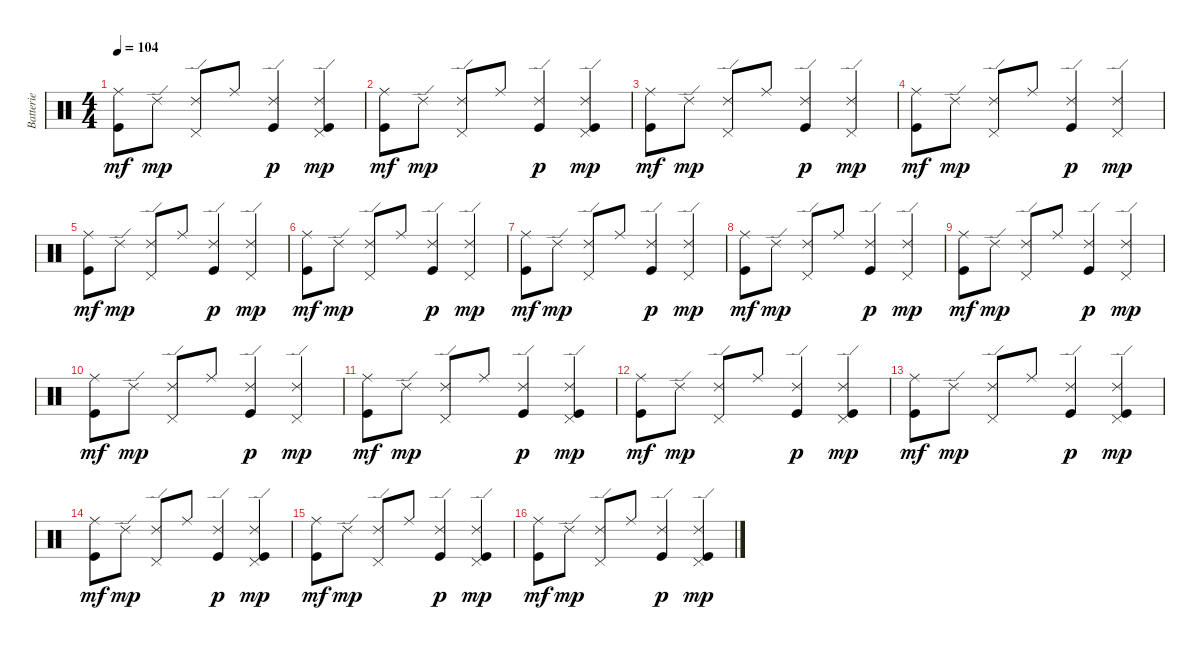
\track ("Batterie" "Batterie") {instrument percussion}
\staff {score}
\articulation defaults
\ts (4 4)
\tempo 104
\clef neutral
\ks c
("Ride (middle)" "Kick (hit)").8{dy mf} "Ride (edge) 2".8{dy mp} ("Pedal Hi-Hat (hit)" "Ride (edge) 2").8 "Ride (middle)".8 ("Kick (hit)" "Ride (edge) 2").4{dy p} ("Pedal Hi-Hat (hit)" "Kick (hit)" "Ride (edge) 2").4{dy mp} |
("Ride (middle)" "Kick (hit)").8{dy mf} "Ride (edge) 2".8{dy mp} ("Pedal Hi-Hat (hit)" "Ride (edge) 2").8 "Ride (middle)".8 ("Kick (hit)" "Ride (edge) 2").4{dy p} ("Pedal Hi-Hat (hit)" "Kick (hit)" "Ride (edge) 2").4{dy mp} |
("Ride (middle)" "Kick (hit)").8{dy mf} "Ride (edge) 2".8{dy mp} ("Pedal Hi-Hat (hit)" "Ride (edge) 2").8 "Ride (middle)".8 ("Kick (hit)" "Ride (edge) 2").4{dy p} ("Pedal Hi-Hat (hit)" "Ride (edge) 2").4{dy mp} |
("Ride (middle)" "Kick (hit)").8{dy mf} "Ride (edge) 2".8{dy mp} ("Pedal Hi-Hat (hit)" "Ride (edge) 2").8 "Ride (middle)".8 ("Kick (hit)" "Ride (edge) 2").4{dy p} ("Pedal Hi-Hat (hit)" "Ride (edge) 2").4{dy mp} |
("Ride (middle)" "Kick (hit)").8{dy mf} "Ride (edge) 2".8{dy mp} ("Pedal Hi-Hat (hit)" "Ride (edge) 2").8 "Ride (middle)".8 ("Kick (hit)" "Ride (edge) 2").4{dy p} ("Pedal Hi-Hat (hit)" "Ride (edge) 2").4{dy mp} |
("Ride (middle)" "Kick (hit)").8{dy mf} "Ride (edge) 2".8{dy mp} ("Pedal Hi-Hat (hit)" "Ride (edge) 2").8 "Ride (middle)".8 ("Kick (hit)" "Ride (edge) 2").4{dy p} ("Pedal Hi-Hat (hit)" "Ride (edge) 2").4{dy mp} |
("Ride (middle)" "Kick (hit)").8{dy mf} "Ride (edge) 2".8{dy mp} ("Pedal Hi-Hat (hit)" "Ride (edge) 2").8 "Ride (middle)".8 ("Kick (hit)" "Ride (edge) 2").4{dy p} ("Pedal Hi-Hat (hit)" "Ride (edge) 2").4{dy mp} |
("Ride (middle)" "Kick (hit)").8{dy mf} "Ride (edge) 2".8{dy mp} ("Pedal Hi-Hat (hit)" "Ride (edge) 2").8 "Ride (middle)".8 ("Kick (hit)" "Ride (edge) 2").4{dy p} ("Pedal Hi-Hat (hit)" "Ride (edge) 2").4{dy mp} |
("Ride (middle)" "Kick (hit)").8{dy mf} "Ride (edge) 2".8{dy mp} ("Pedal Hi-Hat (hit)" "Ride (edge) 2").8 "Ride (middle)".8 ("Kick (hit)" "Ride (edge) 2").4{dy p} ("Pedal Hi-Hat (hit)" "Ride (edge) 2").4{dy mp} |
("Ride (middle)" "Kick (hit)").8{dy mf} "Ride (edge) 2".8{dy mp} ("Pedal Hi-Hat (hit)" "Ride (edge) 2").8 "Ride (middle)".8 ("Kick (hit)" "Ride (edge) 2").4{dy p} ("Pedal Hi-Hat (hit)" "Ride (edge) 2").4{dy mp} |
("Ride (middle)" "Kick (hit)").8{dy mf} "Ride (edge) 2".8{dy mp} ("Pedal Hi-Hat (hit)" "Ride (edge) 2").8 "Ride (middle)".8 ("Kick (hit)" "Ride (edge) 2").4{dy p} ("Pedal Hi-Hat (hit)" "Kick (hit)" "Ride (edge) 2").4{dy mp} |
("Ride (middle)" "Kick (hit)").8{dy mf} "Ride (edge) 2".8{dy mp} ("Pedal Hi-Hat (hit)" "Ride (edge) 2").8 "Ride (middle)".8 ("Kick (hit)" "Ride (edge) 2").4{dy p} ("Pedal Hi-Hat (hit)" "Kick (hit)" "Ride (edge) 2").4{dy mp} |
("Ride (middle)" "Kick (hit)").8{dy mf} "Ride (edge) 2".8{dy mp} ("Pedal Hi-Hat (hit)" "Ride (edge) 2").8 "Ride (middle)".8 ("Kick (hit)" "Ride (edge) 2").4{dy p} ("Pedal Hi-Hat (hit)" "Kick (hit)" "Ride (edge) 2").4{dy mp} |
("Ride (middle)" "Kick (hit)").8{dy mf} "Ride (edge) 2".8{dy mp} ("Pedal Hi-Hat (hit)" "Ride (edge) 2").8 "Ride (middle)".8 ("Kick (hit)" "Ride (edge) 2").4{dy p} ("Pedal Hi-Hat (hit)" "Kick (hit)" "Ride (edge) 2").4{dy mp} |
("Ride (middle)" "Kick (hit)").8{dy mf} "Ride (edge) 2".8{dy mp} ("Pedal Hi-Hat (hit)" "Ride (edge) 2").8 "Ride (middle)".8 ("Kick (hit)" "Ride (edge) 2").4{dy p} ("Pedal Hi-Hat (hit)" "Kick (hit)" "Ride (edge) 2").4{dy mp} |
("Ride (middle)" "Kick (hit)").8{dy mf} "Ride (edge) 2".8{dy mp} ("Pedal Hi-Hat (hit)" "Ride (edge) 2").8 "Ride (middle)".8 ("Kick (hit)" "Ride (edge) 2").4{dy p} ("Pedal Hi-Hat (hit)" "Kick (hit)" "Ride (edge) 2").4{dy mp}
